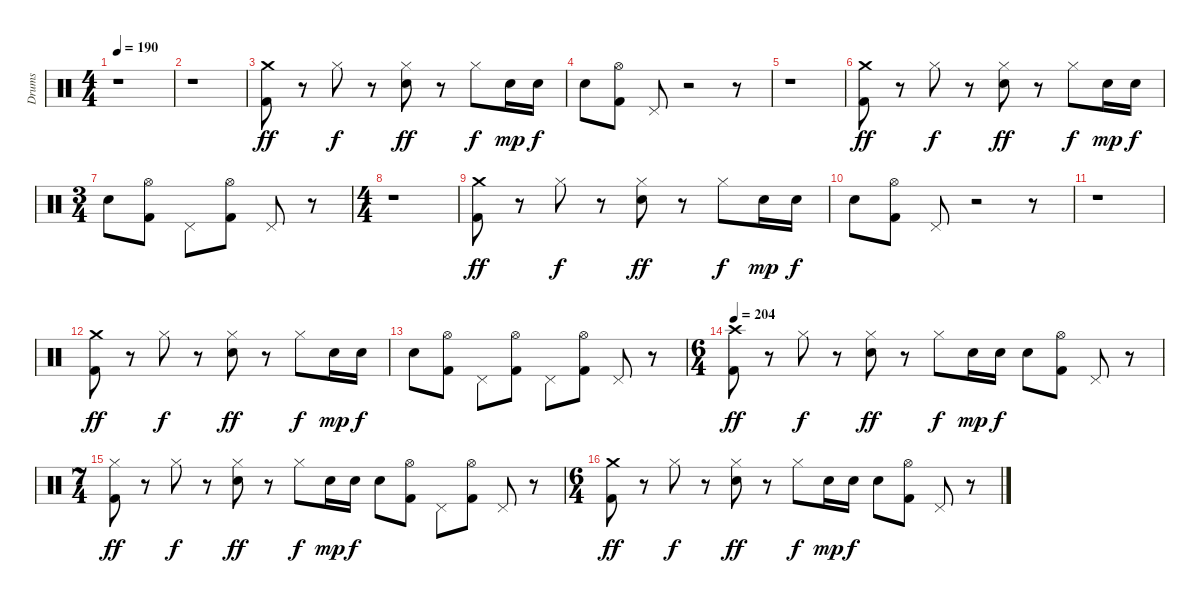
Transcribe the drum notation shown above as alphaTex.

\track ("Drums" "Drums") {instrument percussion}
\staff {score}
\articulation defaults
\ts (4 4)
\tempo 190
\clef neutral
\ks c
r.1{dy mp} |
r.1 |
("Kick (hit) 2" "Crash medium (hit)").8{dy ff} r.8 "Hi-Hat (closed)".8{dy f} r.8 ("Electric Snare (hit)" "Hi-Hat (closed)").8{dy ff} r.8 "Hi-Hat (closed)".8{dy f} "Electric Snare (hit)".16{dy mp} "Electric Snare (hit)".16{dy f} |
"Electric Snare (hit)".8 ("Kick (hit) 2" "Hi-Hat (open)").8 "Pedal Hi-Hat (hit)".8 r.2 r.8 |
r.1 |
("Kick (hit) 2" "Crash medium (hit)").8{dy ff} r.8 "Hi-Hat (closed)".8{dy f} r.8 ("Electric Snare (hit)" "Hi-Hat (closed)").8{dy ff} r.8 "Hi-Hat (closed)".8{dy f} "Electric Snare (hit)".16{dy mp} "Electric Snare (hit)".16{dy f} |
\ts (3 4)
"Electric Snare (hit)".8 ("Kick (hit) 2" "Hi-Hat (open)").8 "Pedal Hi-Hat (hit)".8 ("Kick (hit) 2" "Hi-Hat (open)").8 "Pedal Hi-Hat (hit)".8 r.8 |
\ts (4 4)
r.1 |
("Kick (hit) 2" "Crash medium (hit)").8{dy ff} r.8 "Hi-Hat (closed)".8{dy f} r.8 ("Electric Snare (hit)" "Hi-Hat (closed)").8{dy ff} r.8 "Hi-Hat (closed)".8{dy f} "Electric Snare (hit)".16{dy mp} "Electric Snare (hit)".16{dy f} |
"Electric Snare (hit)".8 ("Kick (hit) 2" "Hi-Hat (open)").8 "Pedal Hi-Hat (hit)".8 r.2 r.8 |
r.1 |
("Kick (hit) 2" "Crash medium (hit)").8{dy ff} r.8 "Hi-Hat (closed)".8{dy f} r.8 ("Electric Snare (hit)" "Hi-Hat (closed)").8{dy ff} r.8 "Hi-Hat (closed)".8{dy f} "Electric Snare (hit)".16{dy mp} "Electric Snare (hit)".16{dy f} |
"Electric Snare (hit)".8 ("Kick (hit) 2" "Hi-Hat (open)").8 "Pedal Hi-Hat (hit)".8 ("Kick (hit) 2" "Hi-Hat (open)").8 "Pedal Hi-Hat (hit)".8 ("Kick (hit) 2" "Hi-Hat (open)").8 "Pedal Hi-Hat (hit)".8 r.8 |
\ts (6 4)
\tempo 204
("Kick (hit) 2" "Crash high (hit)").8{dy ff} r.8 "Hi-Hat (closed)".8{dy f} r.8 ("Electric Snare (hit)" "Hi-Hat (closed)").8{dy ff} r.8 "Hi-Hat (closed)".8{dy f} "Electric Snare (hit)".16{dy mp} "Electric Snare (hit)".16{dy f} "Electric Snare (hit)".8 ("Kick (hit) 2" "Hi-Hat (open)").8 "Pedal Hi-Hat (hit)".8 r.8 |
\ts (7 4)
("Kick (hit) 2" "Hi-Hat (closed)").8{dy ff} r.8 "Hi-Hat (closed)".8{dy f} r.8 ("Electric Snare (hit)" "Hi-Hat (closed)").8{dy ff} r.8 "Hi-Hat (closed)".8{dy f} "Electric Snare (hit)".16{dy mp} "Electric Snare (hit)".16{dy f} "Electric Snare (hit)".8 ("Kick (hit) 2" "Hi-Hat (open)").8 "Pedal Hi-Hat (hit)".8 ("Kick (hit) 2" "Hi-Hat (open)").8 "Pedal Hi-Hat (hit)".8 r.8 |
\ts (6 4)
("Kick (hit) 2" "Crash medium (hit)").8{dy ff} r.8 "Hi-Hat (closed)".8{dy f} r.8 ("Electric Snare (hit)" "Hi-Hat (closed)").8{dy ff} r.8 "Hi-Hat (closed)".8{dy f} "Electric Snare (hit)".16{dy mp} "Electric Snare (hit)".16{dy f} "Electric Snare (hit)".8 ("Kick (hit) 2" "Hi-Hat (open)").8 "Pedal Hi-Hat (hit)".8 r.8
